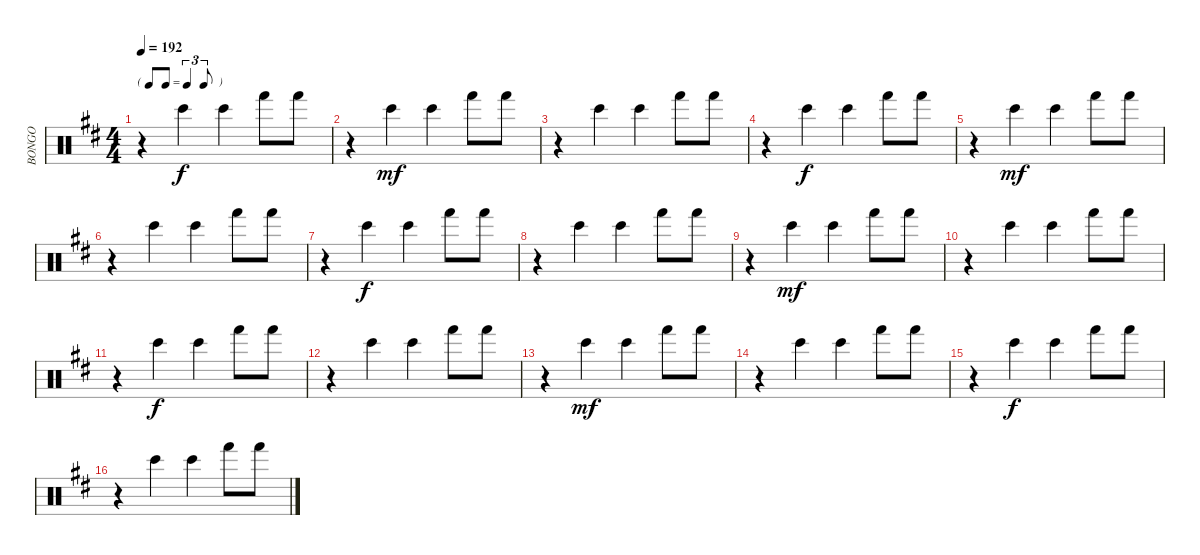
\track ("BONGO" "BONGO") {instrument percussion}
\staff {score}
\articulation defaults
\ts (4 4)
\tf triplet8th
\tempo 192
\clef neutral
\ks d
r.4{dy f} "Bongo High (hit)".4 "Bongo High (hit)".4 "Hand (hit)".8 "Hand (hit)".8 |
r.4 "Bongo High (hit)".4{dy mf} "Bongo High (hit)".4 "Hand (hit)".8 "Hand (hit)".8 |
r.4 "Bongo High (hit)".4 "Bongo High (hit)".4 "Hand (hit)".8 "Hand (hit)".8 |
r.4 "Bongo High (hit)".4{dy f} "Bongo High (hit)".4 "Hand (hit)".8 "Hand (hit)".8 |
r.4 "Bongo High (hit)".4{dy mf} "Bongo High (hit)".4 "Hand (hit)".8 "Hand (hit)".8 |
r.4 "Bongo High (hit)".4 "Bongo High (hit)".4 "Hand (hit)".8 "Hand (hit)".8 |
r.4 "Bongo High (hit)".4{dy f} "Bongo High (hit)".4 "Hand (hit)".8 "Hand (hit)".8 |
r.4 "Bongo High (hit)".4 "Bongo High (hit)".4 "Hand (hit)".8 "Hand (hit)".8 |
r.4 "Bongo High (hit)".4{dy mf} "Bongo High (hit)".4 "Hand (hit)".8 "Hand (hit)".8 |
r.4 "Bongo High (hit)".4 "Bongo High (hit)".4 "Hand (hit)".8 "Hand (hit)".8 |
r.4 "Bongo High (hit)".4{dy f} "Bongo High (hit)".4 "Hand (hit)".8 "Hand (hit)".8 |
r.4 "Bongo High (hit)".4 "Bongo High (hit)".4 "Hand (hit)".8 "Hand (hit)".8 |
r.4 "Bongo High (hit)".4{dy mf} "Bongo High (hit)".4 "Hand (hit)".8 "Hand (hit)".8 |
r.4 "Bongo High (hit)".4 "Bongo High (hit)".4 "Hand (hit)".8 "Hand (hit)".8 |
r.4 "Bongo High (hit)".4{dy f} "Bongo High (hit)".4 "Hand (hit)".8 "Hand (hit)".8 |
r.4 "Bongo High (hit)".4 "Bongo High (hit)".4 "Hand (hit)".8 "Hand (hit)".8
